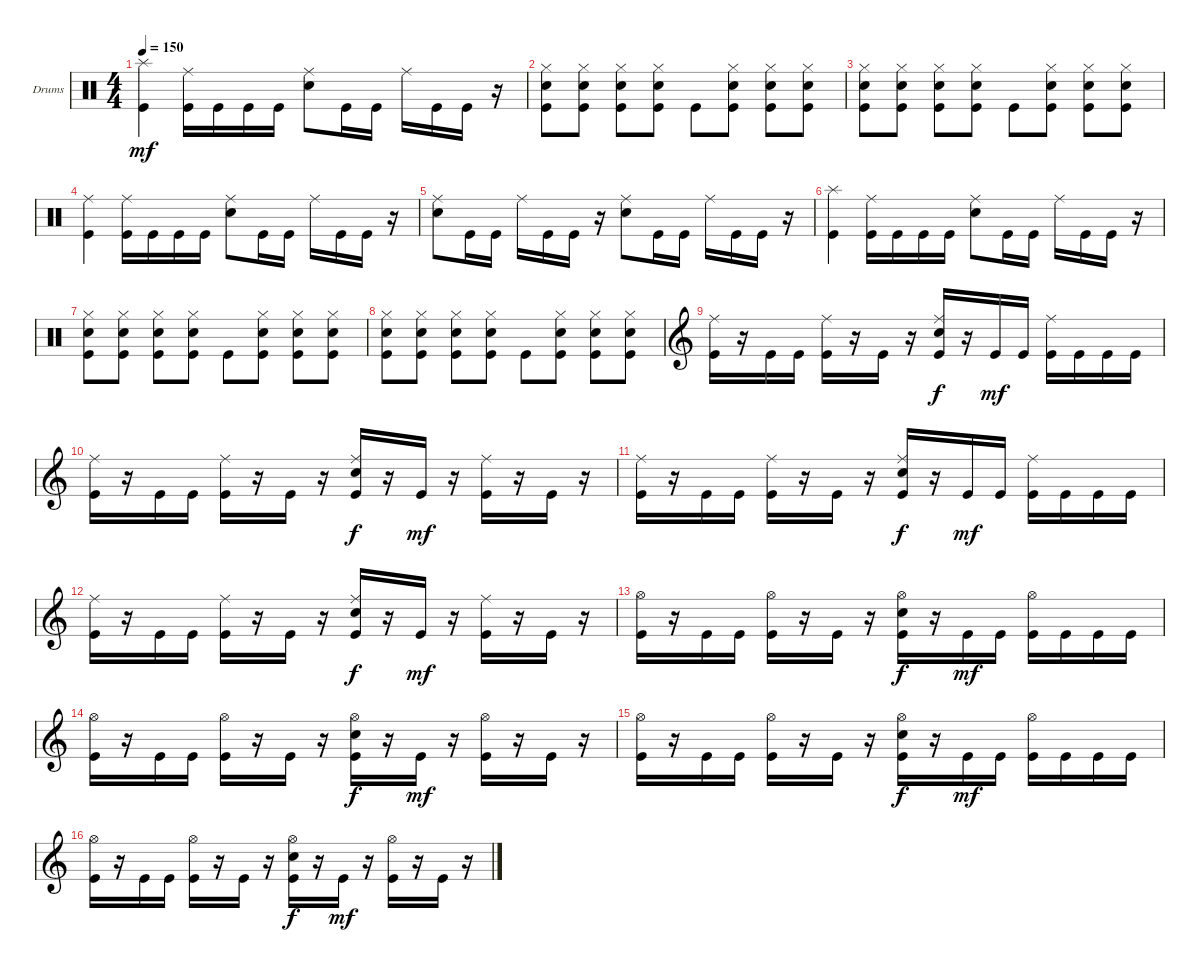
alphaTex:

\defaultSystemsLayout 4
\bracketExtendMode groupsimilarinstruments
\firstSystemTrackNameOrientation horizontal
\otherSystemsTrackNameOrientation horizontal
\track ("Drumkit" "Drums") {instrument percussion}
\staff {score}
\articulation defaults
\ts (4 4)
\tempo 150
\clef neutral
\ks c
("Kick (hit)" "Splash (hit)").4{dy mf} ("Kick (hit)" "Ride (middle)").16 "Kick (hit)".16 "Kick (hit)".16 "Kick (hit)".16 ("Snare (hit) 2" "Ride (middle)").8 "Kick (hit)".16 "Kick (hit)".16 "Ride (middle)".16 "Kick (hit)".16 "Kick (hit)".16 r.16 |
("Kick (hit)" "Snare (hit) 2" "Hi-Hat (closed)").8 ("Kick (hit)" "Snare (hit) 2" "Hi-Hat (closed)").8 ("Kick (hit)" "Snare (hit) 2" "Hi-Hat (closed)").8 ("Kick (hit)" "Snare (hit) 2" "Hi-Hat (closed)").8 "Kick (hit)".8 ("Kick (hit)" "Snare (hit) 2" "Hi-Hat (closed)").8 ("Kick (hit)" "Snare (hit) 2" "Hi-Hat (closed)").8 ("Kick (hit)" "Snare (hit) 2" "Hi-Hat (closed)").8 |
("Kick (hit)" "Snare (hit) 2" "Hi-Hat (closed)").8 ("Kick (hit)" "Snare (hit) 2" "Hi-Hat (closed)").8 ("Kick (hit)" "Snare (hit) 2" "Hi-Hat (closed)").8 ("Kick (hit)" "Snare (hit) 2" "Hi-Hat (closed)").8 "Kick (hit)".8 ("Kick (hit)" "Snare (hit) 2" "Hi-Hat (closed)").8 ("Kick (hit)" "Snare (hit) 2" "Hi-Hat (closed)").8 ("Kick (hit)" "Snare (hit) 2" "Hi-Hat (closed)").8 |
("Kick (hit)" "Ride (middle)").4 ("Kick (hit)" "Ride (middle)").16 "Kick (hit)".16 "Kick (hit)".16 "Kick (hit)".16 ("Snare (hit) 2" "Ride (middle)").8 "Kick (hit)".16 "Kick (hit)".16 "Ride (middle)".16 "Kick (hit)".16 "Kick (hit)".16 r.16 |
("Snare (hit) 2" "Ride (middle)").8 "Kick (hit)".16 "Kick (hit)".16 "Ride (middle)".16 "Kick (hit)".16 "Kick (hit)".16 r.16 ("Snare (hit) 2" "Ride (middle)").8 "Kick (hit)".16 "Kick (hit)".16 "Ride (middle)".16 "Kick (hit)".16 "Kick (hit)".16 r.16 |
("Kick (hit)" "Splash (hit)").4 ("Kick (hit)" "Ride (middle)").16 "Kick (hit)".16 "Kick (hit)".16 "Kick (hit)".16 ("Snare (hit) 2" "Ride (middle)").8 "Kick (hit)".16 "Kick (hit)".16 "Ride (middle)".16 "Kick (hit)".16 "Kick (hit)".16 r.16 |
("Kick (hit)" "Snare (hit) 2" "Hi-Hat (closed)").8 ("Kick (hit)" "Snare (hit) 2" "Hi-Hat (closed)").8 ("Kick (hit)" "Snare (hit) 2" "Hi-Hat (closed)").8 ("Kick (hit)" "Snare (hit) 2" "Hi-Hat (closed)").8 "Kick (hit)".8 ("Kick (hit)" "Snare (hit) 2" "Hi-Hat (closed)").8 ("Kick (hit)" "Snare (hit) 2" "Hi-Hat (closed)").8 ("Kick (hit)" "Snare (hit) 2" "Hi-Hat (closed)").8 |
("Kick (hit)" "Snare (hit) 2" "Hi-Hat (closed)").8 ("Kick (hit)" "Snare (hit) 2" "Hi-Hat (closed)").8 ("Kick (hit)" "Snare (hit) 2" "Hi-Hat (closed)").8 ("Kick (hit)" "Snare (hit) 2" "Hi-Hat (closed)").8 "Kick (hit)".8 ("Kick (hit)" "Snare (hit) 2" "Hi-Hat (closed)").8 ("Kick (hit)" "Snare (hit) 2" "Hi-Hat (closed)").8 ("Kick (hit)" "Snare (hit) 2" "Hi-Hat (closed)").8 |
\clef g2
("Kick (hit)" "Ride (middle)").16 r.16 "Kick (hit)".16 "Kick (hit)".16 ("Kick (hit)" "Ride (middle)").16 r.16 "Kick (hit)".16 r.16 ("Snare (hit) 2" "Kick (hit)" "Ride (middle)").16{dy f} r.16 "Kick (hit)".16{dy mf} "Kick (hit)".16 ("Kick (hit)" "Ride (middle)").16 "Kick (hit)".16 "Kick (hit)".16 "Kick (hit)".16 |
("Kick (hit)" "Ride (middle)").16 r.16 "Kick (hit)".16 "Kick (hit)".16 ("Kick (hit)" "Ride (middle)").16 r.16 "Kick (hit)".16 r.16 ("Snare (hit) 2" "Kick (hit)" "Ride (middle)").16{dy f} r.16 "Kick (hit)".16{dy mf} r.16 ("Kick (hit)" "Ride (middle)").16 r.16 "Kick (hit)".16 r.16 |
("Kick (hit)" "Ride (middle)").16 r.16 "Kick (hit)".16 "Kick (hit)".16 ("Kick (hit)" "Ride (middle)").16 r.16 "Kick (hit)".16 r.16 ("Snare (hit) 2" "Kick (hit)" "Ride (middle)").16{dy f} r.16 "Kick (hit)".16{dy mf} "Kick (hit)".16 ("Kick (hit)" "Ride (middle)").16 "Kick (hit)".16 "Kick (hit)".16 "Kick (hit)".16 |
("Kick (hit)" "Ride (middle)").16 r.16 "Kick (hit)".16 "Kick (hit)".16 ("Kick (hit)" "Ride (middle)").16 r.16 "Kick (hit)".16 r.16 ("Snare (hit) 2" "Kick (hit)" "Ride (middle)").16{dy f} r.16 "Kick (hit)".16{dy mf} r.16 ("Kick (hit)" "Ride (middle)").16 r.16 "Kick (hit)".16 r.16 |
("Kick (hit)" "Hi-Hat (open)").16 r.16 "Kick (hit)".16 "Kick (hit)".16 ("Kick (hit)" "Hi-Hat (open)").16 r.16 "Kick (hit)".16 r.16 ("Snare (hit) 2" "Kick (hit)" "Hi-Hat (open)").16{dy f} r.16 "Kick (hit)".16{dy mf} "Kick (hit)".16 ("Kick (hit)" "Hi-Hat (open)").16 "Kick (hit)".16 "Kick (hit)".16 "Kick (hit)".16 |
("Kick (hit)" "Hi-Hat (open)").16 r.16 "Kick (hit)".16 "Kick (hit)".16 ("Kick (hit)" "Hi-Hat (open)").16 r.16 "Kick (hit)".16 r.16 ("Snare (hit) 2" "Kick (hit)" "Hi-Hat (open)").16{dy f} r.16 "Kick (hit)".16{dy mf} r.16 ("Kick (hit)" "Hi-Hat (open)").16 r.16 "Kick (hit)".16 r.16 |
("Kick (hit)" "Hi-Hat (open)").16 r.16 "Kick (hit)".16 "Kick (hit)".16 ("Kick (hit)" "Hi-Hat (open)").16 r.16 "Kick (hit)".16 r.16 ("Snare (hit) 2" "Kick (hit)" "Hi-Hat (open)").16{dy f} r.16 "Kick (hit)".16{dy mf} "Kick (hit)".16 ("Kick (hit)" "Hi-Hat (open)").16 "Kick (hit)".16 "Kick (hit)".16 "Kick (hit)".16 |
("Kick (hit)" "Hi-Hat (open)").16 r.16 "Kick (hit)".16 "Kick (hit)".16 ("Kick (hit)" "Hi-Hat (open)").16 r.16 "Kick (hit)".16 r.16 ("Snare (hit) 2" "Kick (hit)" "Hi-Hat (open)").16{dy f} r.16 "Kick (hit)".16{dy mf} r.16 ("Kick (hit)" "Hi-Hat (open)").16 r.16 "Kick (hit)".16 r.16
